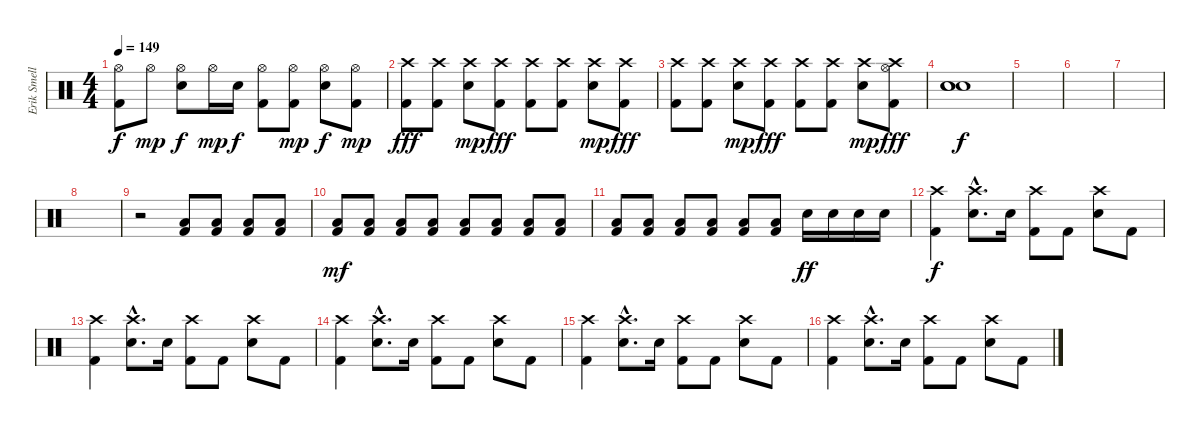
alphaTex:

\track ("Erik Smelly - Drums" "Erik Smell") {instrument percussion}
\staff {score}
\articulation defaults
\ts (4 4)
\tempo 149
\clef neutral
\ks c
("Hi-Hat (open)" "Kick (hit) 2").8{dy f} "Hi-Hat (open)".8{dy mp} ("Hi-Hat (open)" "Electric Snare (hit)").8{dy f} "Hi-Hat (open)".16{dy mp} "Electric Snare (hit)".16{dy f} ("Hi-Hat (open)" "Kick (hit) 2").8 ("Hi-Hat (open)" "Kick (hit) 2").8{dy mp} ("Hi-Hat (open)" "Electric Snare (hit)").8{dy f} ("Hi-Hat (open)" "Kick (hit) 2").8{dy mp} |
("Crash high (hit)" "Kick (hit) 2").8{dy fff} ("Crash high (hit)" "Kick (hit) 2").8 ("Crash high (hit)" "Electric Snare (hit)").8{dy mp} ("Crash high (hit)" "Kick (hit) 2").8{dy fff} ("Crash high (hit)" "Kick (hit) 2").8 ("Crash high (hit)" "Kick (hit) 2").8 ("Crash high (hit)" "Electric Snare (hit)").8{dy mp} ("Crash high (hit)" "Kick (hit) 2").8{dy fff} |
("Crash high (hit)" "Kick (hit) 2").8 ("Crash high (hit)" "Kick (hit) 2").8 ("Crash high (hit)" "Electric Snare (hit)").8{dy mp} ("Crash high (hit)" "Kick (hit) 2").8{dy fff} ("Crash high (hit)" "Kick (hit) 2").8 ("Crash high (hit)" "Kick (hit) 2").8 ("Crash high (hit)" "Electric Snare (hit)").8{dy mp} ("Crash high (hit)" "Hi-Hat (open)" "Kick (hit) 2").8{dy fff} |
("Snare (hit)"{x} "Snare (hit)"{x} "Snare (hit)"{x}).1{dy f} |
|
|
|
|
r.2{volume 1} ("Low Tom (hit)" "Kick (hit) 2").8{volume 13} ("Low Tom (hit)" "Kick (hit) 2").8 ("Low Tom (hit)" "Kick (hit) 2").8 ("Low Tom (hit)" "Kick (hit) 2").8 |
("Low Tom (hit)" "Kick (hit) 2").8{dy mf} ("Low Tom (hit)" "Kick (hit) 2").8 ("Low Tom (hit)" "Kick (hit) 2").8 ("Low Tom (hit)" "Kick (hit) 2").8 ("Low Tom (hit)" "Kick (hit) 2").8 ("Low Tom (hit)" "Kick (hit) 2").8 ("Low Tom (hit)" "Kick (hit) 2").8 ("Low Tom (hit)" "Kick (hit) 2").8 |
("Low Tom (hit)" "Kick (hit) 2").8 ("Low Tom (hit)" "Kick (hit) 2").8 ("Low Tom (hit)" "Kick (hit) 2").8 ("Low Tom (hit)" "Kick (hit) 2").8 ("Low Tom (hit)" "Kick (hit) 2").8 ("Low Tom (hit)" "Kick (hit) 2").8 "Electric Snare (hit)".16{dy ff} "Electric Snare (hit)".16 "Electric Snare (hit)".16 "Electric Snare (hit)".16 |
("Crash high (hit)" "Kick (hit) 2").4{dy f volume 15} ("Crash high (hit)"{hac} "Electric Snare (hit)"{hac}).8{d} "Electric Snare (hit)".16 ("Crash high (hit)" "Kick (hit) 2").8 "Kick (hit) 2".8 ("Crash high (hit)" "Electric Snare (hit)").8 "Kick (hit) 2".8 |
("Crash high (hit)" "Kick (hit) 2").4 ("Crash high (hit)"{hac} "Electric Snare (hit)"{hac}).8{d} "Electric Snare (hit)".16 ("Crash high (hit)" "Kick (hit) 2").8 "Kick (hit) 2".8 ("Crash high (hit)" "Electric Snare (hit)").8 "Kick (hit) 2".8 |
("Crash high (hit)" "Kick (hit) 2").4 ("Crash high (hit)"{hac} "Electric Snare (hit)"{hac}).8{d} "Electric Snare (hit)".16 ("Crash high (hit)" "Kick (hit) 2").8 "Kick (hit) 2".8 ("Crash high (hit)" "Electric Snare (hit)").8 "Kick (hit) 2".8 |
("Crash high (hit)" "Kick (hit) 2").4 ("Crash high (hit)"{hac} "Electric Snare (hit)"{hac}).8{d} "Electric Snare (hit)".16 ("Crash high (hit)" "Kick (hit) 2").8 "Kick (hit) 2".8 ("Crash high (hit)" "Electric Snare (hit)").8 "Kick (hit) 2".8 |
("Crash high (hit)" "Kick (hit) 2").4 ("Crash high (hit)"{hac} "Electric Snare (hit)"{hac}).8{d} "Electric Snare (hit)".16 ("Crash high (hit)" "Kick (hit) 2").8 "Kick (hit) 2".8 ("Crash high (hit)" "Electric Snare (hit)").8 "Kick (hit) 2".8
